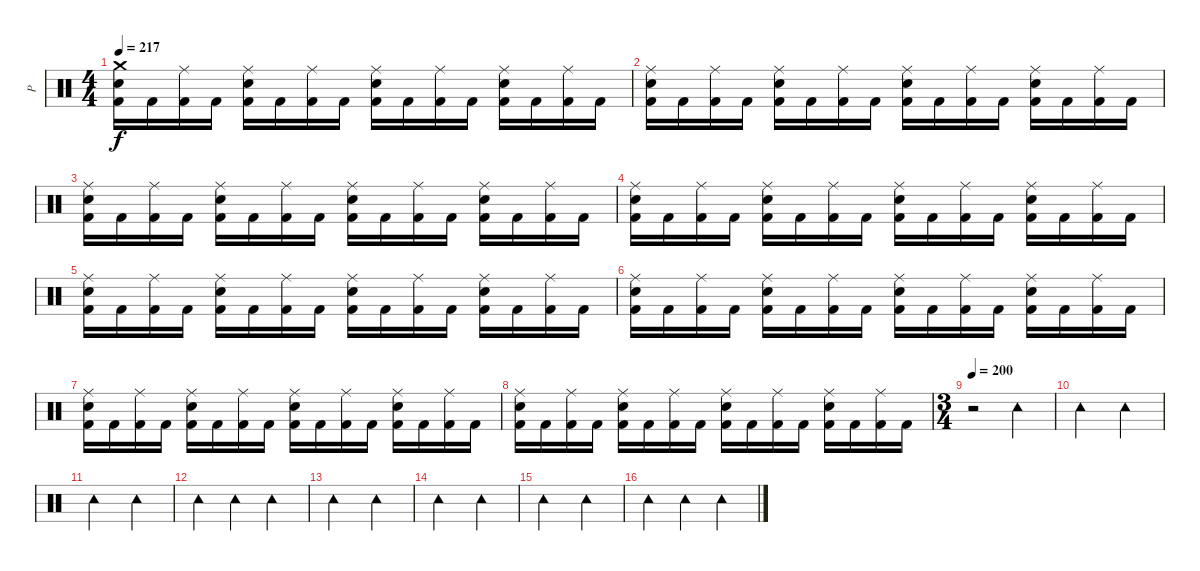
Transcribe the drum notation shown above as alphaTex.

\track ("P" "P") {instrument percussion}
\staff {score}
\articulation defaults
\ts (4 4)
\tempo 217
\clef neutral
\ks c
("Crash medium (hit)" "Electric Snare (hit)" "Kick (hit) 2").16{dy f} "Kick (hit) 2".16 ("Ride (middle)" "Kick (hit) 2").16 "Kick (hit) 2".16 ("Ride (middle)" "Electric Snare (hit)" "Kick (hit) 2").16 "Kick (hit) 2".16 ("Ride (middle)" "Kick (hit) 2").16 "Kick (hit) 2".16 ("Ride (middle)" "Electric Snare (hit)" "Kick (hit) 2").16 "Kick (hit) 2".16 ("Ride (middle)" "Kick (hit) 2").16 "Kick (hit) 2".16 ("Ride (middle)" "Electric Snare (hit)" "Kick (hit) 2").16 "Kick (hit) 2".16 ("Ride (middle)" "Kick (hit) 2").16 "Kick (hit) 2".16 |
("Ride (middle)" "Electric Snare (hit)" "Kick (hit) 2").16 "Kick (hit) 2".16 ("Ride (middle)" "Kick (hit) 2").16 "Kick (hit) 2".16 ("Ride (middle)" "Electric Snare (hit)" "Kick (hit) 2").16 "Kick (hit) 2".16 ("Ride (middle)" "Kick (hit) 2").16 "Kick (hit) 2".16 ("Ride (middle)" "Electric Snare (hit)" "Kick (hit) 2").16 "Kick (hit) 2".16 ("Ride (middle)" "Kick (hit) 2").16 "Kick (hit) 2".16 ("Ride (middle)" "Electric Snare (hit)" "Kick (hit) 2").16 "Kick (hit) 2".16 ("Ride (middle)" "Kick (hit) 2").16 "Kick (hit) 2".16 |
("Ride (middle)" "Electric Snare (hit)" "Kick (hit) 2").16 "Kick (hit) 2".16 ("Ride (middle)" "Kick (hit) 2").16 "Kick (hit) 2".16 ("Ride (middle)" "Electric Snare (hit)" "Kick (hit) 2").16 "Kick (hit) 2".16 ("Ride (middle)" "Kick (hit) 2").16 "Kick (hit) 2".16 ("Ride (middle)" "Electric Snare (hit)" "Kick (hit) 2").16 "Kick (hit) 2".16 ("Ride (middle)" "Kick (hit) 2").16 "Kick (hit) 2".16 ("Ride (middle)" "Electric Snare (hit)" "Kick (hit) 2").16 "Kick (hit) 2".16 ("Ride (middle)" "Kick (hit) 2").16 "Kick (hit) 2".16 |
("Ride (middle)" "Electric Snare (hit)" "Kick (hit) 2").16 "Kick (hit) 2".16 ("Ride (middle)" "Kick (hit) 2").16 "Kick (hit) 2".16 ("Ride (middle)" "Electric Snare (hit)" "Kick (hit) 2").16 "Kick (hit) 2".16 ("Ride (middle)" "Kick (hit) 2").16 "Kick (hit) 2".16 ("Ride (middle)" "Electric Snare (hit)" "Kick (hit) 2").16 "Kick (hit) 2".16 ("Ride (middle)" "Kick (hit) 2").16 "Kick (hit) 2".16 ("Ride (middle)" "Electric Snare (hit)" "Kick (hit) 2").16 "Kick (hit) 2".16 ("Ride (middle)" "Kick (hit) 2").16 "Kick (hit) 2".16 |
("Ride (middle)" "Electric Snare (hit)" "Kick (hit) 2").16 "Kick (hit) 2".16 ("Ride (middle)" "Kick (hit) 2").16 "Kick (hit) 2".16 ("Ride (middle)" "Electric Snare (hit)" "Kick (hit) 2").16 "Kick (hit) 2".16 ("Ride (middle)" "Kick (hit) 2").16 "Kick (hit) 2".16 ("Ride (middle)" "Electric Snare (hit)" "Kick (hit) 2").16 "Kick (hit) 2".16 ("Ride (middle)" "Kick (hit) 2").16 "Kick (hit) 2".16 ("Ride (middle)" "Electric Snare (hit)" "Kick (hit) 2").16 "Kick (hit) 2".16 ("Ride (middle)" "Kick (hit) 2").16 "Kick (hit) 2".16 |
("Ride (middle)" "Electric Snare (hit)" "Kick (hit) 2").16 "Kick (hit) 2".16 ("Ride (middle)" "Kick (hit) 2").16 "Kick (hit) 2".16 ("Ride (middle)" "Electric Snare (hit)" "Kick (hit) 2").16 "Kick (hit) 2".16 ("Ride (middle)" "Kick (hit) 2").16 "Kick (hit) 2".16 ("Ride (middle)" "Electric Snare (hit)" "Kick (hit) 2").16 "Kick (hit) 2".16 ("Ride (middle)" "Kick (hit) 2").16 "Kick (hit) 2".16 ("Ride (middle)" "Electric Snare (hit)" "Kick (hit) 2").16 "Kick (hit) 2".16 ("Ride (middle)" "Kick (hit) 2").16 "Kick (hit) 2".16 |
("Ride (middle)" "Electric Snare (hit)" "Kick (hit) 2").16 "Kick (hit) 2".16 ("Ride (middle)" "Kick (hit) 2").16 "Kick (hit) 2".16 ("Ride (middle)" "Electric Snare (hit)" "Kick (hit) 2").16 "Kick (hit) 2".16 ("Ride (middle)" "Kick (hit) 2").16 "Kick (hit) 2".16 ("Ride (middle)" "Electric Snare (hit)" "Kick (hit) 2").16 "Kick (hit) 2".16 ("Ride (middle)" "Kick (hit) 2").16 "Kick (hit) 2".16 ("Ride (middle)" "Electric Snare (hit)" "Kick (hit) 2").16 "Kick (hit) 2".16 ("Ride (middle)" "Kick (hit) 2").16 "Kick (hit) 2".16 |
("Ride (middle)" "Electric Snare (hit)" "Kick (hit) 2").16 "Kick (hit) 2".16 ("Ride (middle)" "Kick (hit) 2").16 "Kick (hit) 2".16 ("Ride (middle)" "Electric Snare (hit)" "Kick (hit) 2").16 "Kick (hit) 2".16 ("Ride (middle)" "Kick (hit) 2").16 "Kick (hit) 2".16 ("Ride (middle)" "Electric Snare (hit)" "Kick (hit) 2").16 "Kick (hit) 2".16 ("Ride (middle)" "Kick (hit) 2").16 "Kick (hit) 2".16 ("Ride (middle)" "Electric Snare (hit)" "Kick (hit) 2").16 "Kick (hit) 2".16 ("Ride (middle)" "Kick (hit) 2").16 "Kick (hit) 2".16 |
\ts (3 4)
\tempo 200
r.2 "Tambourine (hit)".4 |
"Tambourine (hit)".2 "Tambourine (hit)".4 |
"Tambourine (hit)".2 "Tambourine (hit)".4 |
"Tambourine (hit)".4 "Tambourine (hit)".4 "Tambourine (hit)".4 |
"Tambourine (hit)".2 "Tambourine (hit)".4 |
"Tambourine (hit)".2 "Tambourine (hit)".4 |
"Tambourine (hit)".2 "Tambourine (hit)".4 |
"Tambourine (hit)".4 "Tambourine (hit)".4 "Tambourine (hit)".4
